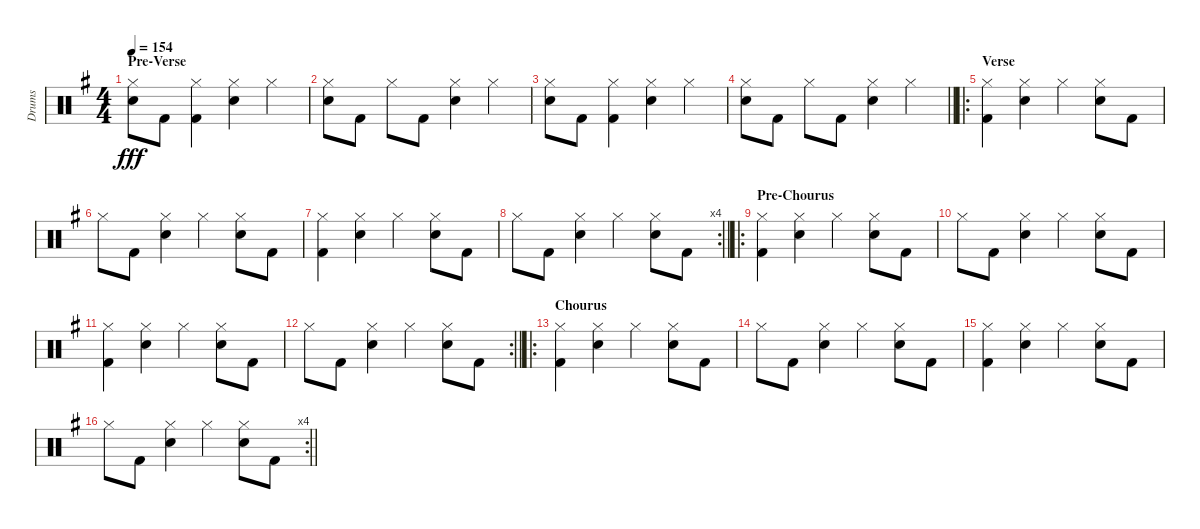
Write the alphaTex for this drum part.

\track ("Drums" "Drums") {instrument percussion}
\staff {score}
\articulation defaults
\ts (4 4)
\section ("" "Pre-Verse")
\tempo 154
\clef neutral
\ks g
("Hi-Hat (closed)" "Snare (hit) 2").8{dy fff} "Kick (hit) 2".8 ("Hi-Hat (closed)" "Kick (hit) 2").4 ("Hi-Hat (closed)" "Snare (hit) 2").4 "Hi-Hat (closed)".4 |
("Hi-Hat (closed)" "Snare (hit) 2").8 "Kick (hit) 2".8 "Hi-Hat (closed)".8 "Kick (hit) 2".8 ("Hi-Hat (closed)" "Snare (hit) 2").4 "Hi-Hat (closed)".4 |
("Hi-Hat (closed)" "Snare (hit) 2").8 "Kick (hit) 2".8 ("Hi-Hat (closed)" "Kick (hit) 2").4 ("Hi-Hat (closed)" "Snare (hit) 2").4 "Hi-Hat (closed)".4 |
\barLineRight lightlight
("Hi-Hat (closed)" "Snare (hit) 2").8 "Kick (hit) 2".8 "Hi-Hat (closed)".8 "Kick (hit) 2".8 ("Hi-Hat (closed)" "Snare (hit) 2").4 "Hi-Hat (closed)".4 |
\ro
\section ("" "Verse")
("Hi-Hat (closed)" "Kick (hit) 2").4 ("Hi-Hat (closed)" "Snare (hit) 2").4 "Hi-Hat (closed)".4 ("Hi-Hat (closed)" "Snare (hit) 2").8 "Kick (hit) 2".8 |
"Hi-Hat (closed)".8 "Kick (hit) 2".8 ("Hi-Hat (closed)" "Snare (hit) 2").4 "Hi-Hat (closed)".4 ("Hi-Hat (closed)" "Snare (hit) 2").8 "Kick (hit) 2".8 |
("Hi-Hat (closed)" "Kick (hit) 2").4 ("Hi-Hat (closed)" "Snare (hit) 2").4 "Hi-Hat (closed)".4 ("Hi-Hat (closed)" "Snare (hit) 2").8 "Kick (hit) 2".8 |
\rc 4
\barLineRight lightlight "Hi-Hat (closed)".8 "Kick (hit) 2".8
("Hi-Hat (closed)" "Snare (hit) 2").4 "Hi-Hat (closed)".4 ("Hi-Hat (closed)" "Snare (hit) 2").8 "Kick (hit) 2".8 |
\ro
\section ("" "Pre-Chourus")
("Hi-Hat (closed)" "Kick (hit) 2").4 ("Hi-Hat (closed)" "Snare (hit) 2").4 "Hi-Hat (closed)".4 ("Hi-Hat (closed)" "Snare (hit) 2").8 "Kick (hit) 2".8 |
"Hi-Hat (closed)".8 "Kick (hit) 2".8 ("Hi-Hat (closed)" "Snare (hit) 2").4 "Hi-Hat (closed)".4 ("Hi-Hat (closed)" "Snare (hit) 2").8 "Kick (hit) 2".8 |
("Hi-Hat (closed)" "Kick (hit) 2").4 ("Hi-Hat (closed)" "Snare (hit) 2").4 "Hi-Hat (closed)".4 ("Hi-Hat (closed)" "Snare (hit) 2").8 "Kick (hit) 2".8 |
\rc 2
\barLineRight lightlight "Hi-Hat (closed)".8 "Kick (hit) 2".8
("Hi-Hat (closed)" "Snare (hit) 2").4 "Hi-Hat (closed)".4 ("Hi-Hat (closed)" "Snare (hit) 2").8 "Kick (hit) 2".8 |
\ro
\section ("" "Chourus")
("Hi-Hat (closed)" "Kick (hit) 2").4 ("Hi-Hat (closed)" "Snare (hit) 2").4 "Hi-Hat (closed)".4 ("Hi-Hat (closed)" "Snare (hit) 2").8 "Kick (hit) 2".8 |
"Hi-Hat (closed)".8 "Kick (hit) 2".8 ("Hi-Hat (closed)" "Snare (hit) 2").4 "Hi-Hat (closed)".4 ("Hi-Hat (closed)" "Snare (hit) 2").8 "Kick (hit) 2".8 |
("Hi-Hat (closed)" "Kick (hit) 2").4 ("Hi-Hat (closed)" "Snare (hit) 2").4 "Hi-Hat (closed)".4 ("Hi-Hat (closed)" "Snare (hit) 2").8 "Kick (hit) 2".8 |
\rc 4
\barLineRight lightlight "Hi-Hat (closed)".8 "Kick (hit) 2".8
("Hi-Hat (closed)" "Snare (hit) 2").4 "Hi-Hat (closed)".4 ("Hi-Hat (closed)" "Snare (hit) 2").8 "Kick (hit) 2".8
